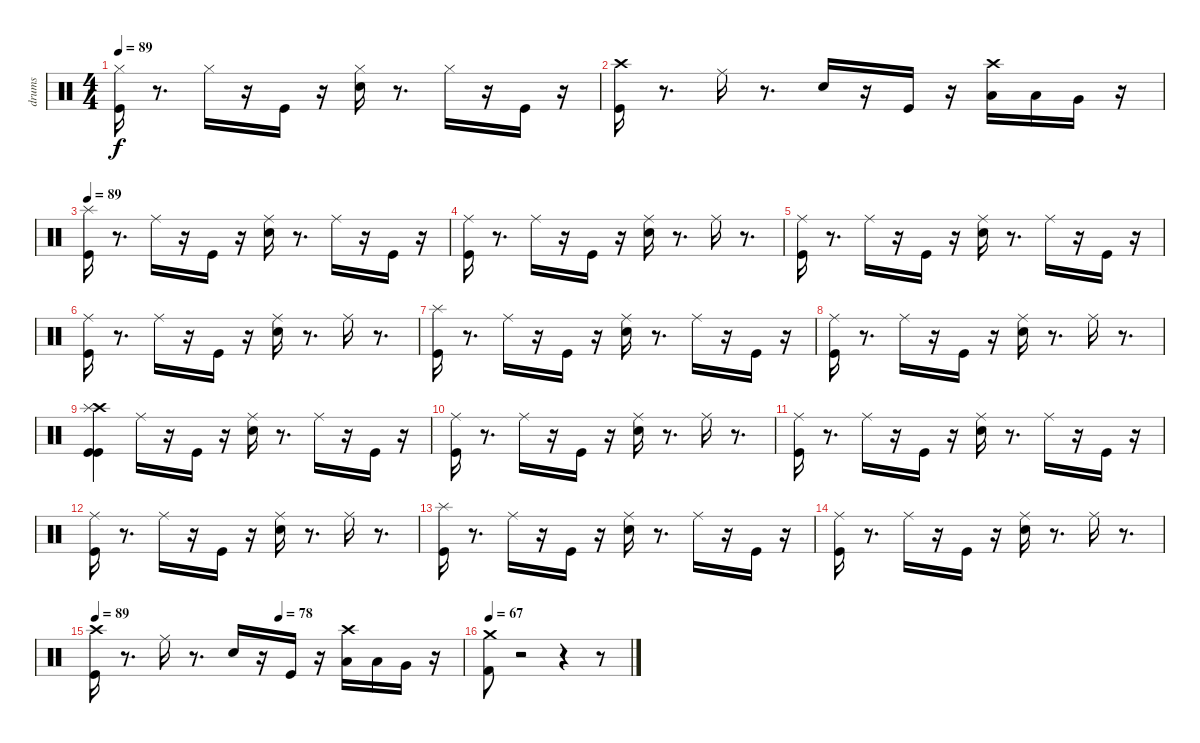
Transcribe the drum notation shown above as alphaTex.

\track ("drums" "drums") {instrument percussion}
\staff {score}
\articulation defaults
\ts (4 4)
\tempo 89
\clef neutral
\ks c
("Hi-Hat (closed)" "Kick (hit)").16{dy f} r.8{d} "Hi-Hat (closed)".16 r.16 "Kick (hit)".16 r.16 ("Hi-Hat (closed)" "Electric Snare (hit)").16 r.8{d} "Hi-Hat (closed)".16 r.16 "Kick (hit)".16 r.16 |
("Crash high (hit)" "Kick (hit)").16 r.8{d} "Ride (middle)".16 r.8{d} "Electric Snare (hit)".16 r.16 "Kick (hit)".16 r.16 ("Crash high (hit)" "Low Tom (hit)").16 "Low Tom (hit)".16 "Very Low Tom (hit)".16 r.16 |
\tempo 89
("Splash (hit)" "Kick (hit)").16 r.8{d} "Ride (middle)".16 r.16 "Kick (hit)".16 r.16 ("Ride (middle)" "Electric Snare (hit)").16 r.8{d} "Ride (middle)".16 r.16 "Kick (hit)".16 r.16 |
("Ride (middle)" "Kick (hit)").16 r.8{d} "Ride (middle)".16 r.16 "Kick (hit)".16 r.16 ("Ride (middle)" "Electric Snare (hit)").16 r.8{d} "Ride (middle)".16 r.8{d} |
("Ride (middle)" "Kick (hit)").16 r.8{d} "Ride (middle)".16 r.16 "Kick (hit)".16 r.16 ("Electric Snare (hit)" "Ride (middle)").16 r.8{d} "Ride (middle)".16 r.16 "Kick (hit)".16 r.16 |
("Ride (middle)" "Kick (hit)").16 r.8{d} "Ride (middle)".16 r.16 "Kick (hit)".16 r.16 ("Ride (middle)" "Electric Snare (hit)").16 r.8{d} "Ride (middle)".16 r.8{d} |
("Splash (hit)" "Kick (hit)").16 r.8{d} "Ride (middle)".16 r.16 "Kick (hit)".16 r.16 ("Ride (middle)" "Snare (hit) 2").16 r.8{d} "Ride (middle)".16 r.16 "Kick (hit)".16 r.16 |
("Ride (middle)" "Kick (hit)").16 r.8{d} "Ride (middle)".16 r.16 "Kick (hit)".16 r.16 ("Ride (middle)" "Electric Snare (hit)").16 r.8{d} "Ride (middle)".16 r.8{d} |
("Crash high (hit)" "Kick (hit)" "Splash (hit)" "Kick (hit)").4 "Ride (middle)".16 r.16 "Kick (hit)".16 r.16 ("Ride (middle)" "Electric Snare (hit)").16 r.8{d} "Ride (middle)".16 r.16 "Kick (hit)".16 r.16 |
("Ride (middle)" "Kick (hit)").16 r.8{d} "Ride (middle)".16 r.16 "Kick (hit)".16 r.16 ("Ride (middle)" "Electric Snare (hit)").16 r.8{d} "Ride (middle)".16 r.8{d} |
("Ride (middle)" "Kick (hit)").16 r.8{d} "Ride (middle)".16 r.16 "Kick (hit)".16 r.16 ("Electric Snare (hit)" "Ride (middle)").16 r.8{d} "Ride (middle)".16 r.16 "Kick (hit)".16 r.16 |
("Ride (middle)" "Kick (hit)").16 r.8{d} "Ride (middle)".16 r.16 "Kick (hit)".16 r.16 ("Ride (middle)" "Electric Snare (hit)").16 r.8{d} "Ride (middle)".16 r.8{d} |
("Splash (hit)" "Kick (hit)").16 r.8{d} "Ride (middle)".16 r.16 "Kick (hit)".16 r.16 ("Electric Snare (hit)" "Ride (middle)").16 r.8{d} "Ride (middle)".16 r.16 "Kick (hit)".16 r.16 |
("Ride (middle)" "Kick (hit)").16 r.8{d} "Ride (middle)".16 r.16 "Kick (hit)".16 r.16 ("Electric Snare (hit)" "Ride (middle)").16 r.8{d} "Ride (middle)".16 r.8{d} |
\tempo 89
\tempo (78 0.5)
("Crash high (hit)" "Kick (hit)").16 r.8{d} "Ride (middle)".16 r.8{d} "Electric Snare (hit)".16 r.16 "Kick (hit)".16 r.16 ("Crash high (hit)" "Low Tom (hit)").16 "Low Tom (hit)".16 "Very Low Tom (hit)".16 r.16 |
\tempo 67
("Crash medium (hit)" "Kick (hit) 2").8 r.2 r.4 r.8
